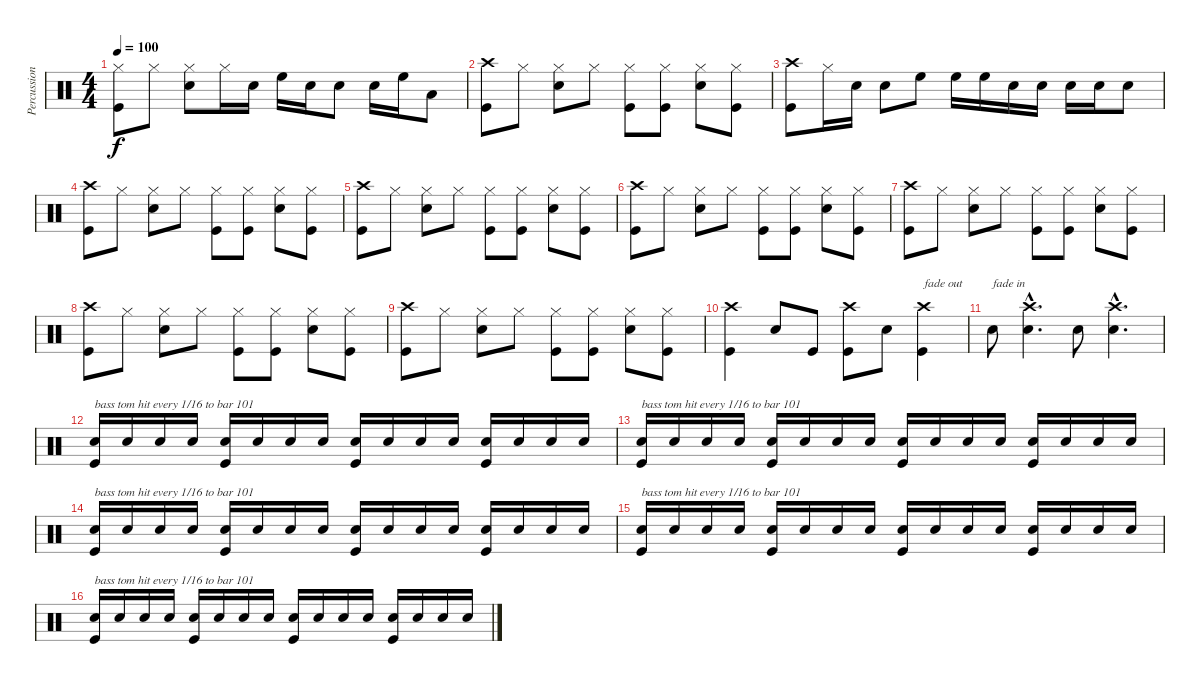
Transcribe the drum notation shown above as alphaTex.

\track ("Percussion" "Percussion") {instrument percussion}
\staff {score}
\articulation defaults
\ts (4 4)
\tempo 100
\clef neutral
\ks c
("Hi-Hat (closed)" "Kick (hit)").8{dy f} "Hi-Hat (closed)".8 ("Hi-Hat (closed)" "Snare (hit) 2").8 "Hi-Hat (closed)".16 "Snare (hit) 2".16 "High Floor Tom (hit)".16 "Snare (hit) 2".16 "Snare (hit) 2".8 "Snare (hit) 2".16 "High Floor Tom (hit)".16 "Low Tom (hit)".8 |
("Crash high (hit)" "Kick (hit)").8 "Hi-Hat (closed)".8 ("Hi-Hat (closed)" "Snare (hit) 2").8 "Hi-Hat (closed)".8 ("Hi-Hat (closed)" "Kick (hit)").8 ("Hi-Hat (closed)" "Kick (hit)").8 ("Hi-Hat (closed)" "Snare (hit) 2").8 ("Hi-Hat (closed)" "Kick (hit)").8 |
("Crash high (hit)" "Kick (hit)").8 "Hi-Hat (closed)".16 "Snare (hit) 2".16 "Snare (hit) 2".8 "High Floor Tom (hit)".8 "High Floor Tom (hit)".16 "High Floor Tom (hit)".16 "Snare (hit) 2".16 "Snare (hit) 2".16 "Snare (hit) 2".16 "Snare (hit) 2".16 "Snare (hit) 2".8 |
("Crash high (hit)" "Kick (hit)").8 "Hi-Hat (closed)".8 ("Hi-Hat (closed)" "Snare (hit) 2").8 "Hi-Hat (closed)".8 ("Hi-Hat (closed)" "Kick (hit)").8 ("Hi-Hat (closed)" "Kick (hit)").8 ("Hi-Hat (closed)" "Snare (hit) 2").8 ("Hi-Hat (closed)" "Kick (hit)").8 |
("Crash high (hit)" "Kick (hit)").8 "Hi-Hat (closed)".8 ("Hi-Hat (closed)" "Snare (hit) 2").8 "Hi-Hat (closed)".8 ("Hi-Hat (closed)" "Kick (hit)").8 ("Hi-Hat (closed)" "Kick (hit)").8 ("Hi-Hat (closed)" "Snare (hit) 2").8 ("Hi-Hat (closed)" "Kick (hit)").8 |
("Crash high (hit)" "Kick (hit)").8 "Hi-Hat (closed)".8 ("Hi-Hat (closed)" "Snare (hit) 2").8 "Hi-Hat (closed)".8 ("Hi-Hat (closed)" "Kick (hit)").8 ("Hi-Hat (closed)" "Kick (hit)").8 ("Hi-Hat (closed)" "Snare (hit) 2").8 ("Hi-Hat (closed)" "Kick (hit)").8 |
("Crash high (hit)" "Kick (hit)").8 "Hi-Hat (closed)".8 ("Hi-Hat (closed)" "Snare (hit) 2").8 "Hi-Hat (closed)".8 ("Hi-Hat (closed)" "Kick (hit)").8 ("Hi-Hat (closed)" "Kick (hit)").8 ("Hi-Hat (closed)" "Snare (hit) 2").8 ("Hi-Hat (closed)" "Kick (hit)").8 |
("Crash high (hit)" "Kick (hit)").8 "Hi-Hat (closed)".8 ("Hi-Hat (closed)" "Snare (hit) 2").8 "Hi-Hat (closed)".8 ("Hi-Hat (closed)" "Kick (hit)").8 ("Hi-Hat (closed)" "Kick (hit)").8 ("Hi-Hat (closed)" "Snare (hit) 2").8 ("Hi-Hat (closed)" "Kick (hit)").8 |
("Crash high (hit)" "Kick (hit)").8 "Hi-Hat (closed)".8 ("Hi-Hat (closed)" "Snare (hit) 2").8 "Hi-Hat (closed)".8 ("Hi-Hat (closed)" "Kick (hit)").8 ("Hi-Hat (closed)" "Kick (hit)").8 ("Hi-Hat (closed)" "Snare (hit) 2").8 ("Hi-Hat (closed)" "Kick (hit)").8 |
("Crash high (hit)" "Kick (hit)").4 "Snare (hit) 2".8 "Kick (hit)".8 ("Crash high (hit)" "Kick (hit)").8 "Snare (hit) 2".8 ("Crash high (hit)" "Kick (hit)").4{txt "fade out"} |
"Snare (hit) 2".8{txt "fade in"} ("Crash high (hit)"{hac} "Snare (hit) 2"{hac}).4{d} "Snare (hit) 2".8 ("Crash high (hit)"{hac} "Snare (hit) 2"{hac}).4{d} |
("Snare (hit) 2" "Kick (hit)").16{txt "bass tom hit every 1/16 to bar 101"} "Snare (hit) 2".16 "Snare (hit) 2".16 "Snare (hit) 2".16 ("Snare (hit) 2" "Kick (hit)").16 "Snare (hit) 2".16 "Snare (hit) 2".16 "Snare (hit) 2".16 ("Snare (hit) 2" "Kick (hit)").16 "Snare (hit) 2".16 "Snare (hit) 2".16 "Snare (hit) 2".16 ("Snare (hit) 2" "Kick (hit)").16 "Snare (hit) 2".16 "Snare (hit) 2".16 "Snare (hit) 2".16 |
("Snare (hit) 2" "Kick (hit)").16{txt "bass tom hit every 1/16 to bar 101"} "Snare (hit) 2".16 "Snare (hit) 2".16 "Snare (hit) 2".16 ("Snare (hit) 2" "Kick (hit)").16 "Snare (hit) 2".16 "Snare (hit) 2".16 "Snare (hit) 2".16 ("Snare (hit) 2" "Kick (hit)").16 "Snare (hit) 2".16 "Snare (hit) 2".16 "Snare (hit) 2".16 ("Snare (hit) 2" "Kick (hit)").16 "Snare (hit) 2".16 "Snare (hit) 2".16 "Snare (hit) 2".16 |
("Snare (hit) 2" "Kick (hit)").16{txt "bass tom hit every 1/16 to bar 101"} "Snare (hit) 2".16 "Snare (hit) 2".16 "Snare (hit) 2".16 ("Snare (hit) 2" "Kick (hit)").16 "Snare (hit) 2".16 "Snare (hit) 2".16 "Snare (hit) 2".16 ("Snare (hit) 2" "Kick (hit)").16 "Snare (hit) 2".16 "Snare (hit) 2".16 "Snare (hit) 2".16 ("Snare (hit) 2" "Kick (hit)").16 "Snare (hit) 2".16 "Snare (hit) 2".16 "Snare (hit) 2".16 |
("Snare (hit) 2" "Kick (hit)").16{txt "bass tom hit every 1/16 to bar 101"} "Snare (hit) 2".16 "Snare (hit) 2".16 "Snare (hit) 2".16 ("Snare (hit) 2" "Kick (hit)").16 "Snare (hit) 2".16 "Snare (hit) 2".16 "Snare (hit) 2".16 ("Snare (hit) 2" "Kick (hit)").16 "Snare (hit) 2".16 "Snare (hit) 2".16 "Snare (hit) 2".16 ("Snare (hit) 2" "Kick (hit)").16 "Snare (hit) 2".16 "Snare (hit) 2".16 "Snare (hit) 2".16 |
("Snare (hit) 2" "Kick (hit)").16{txt "bass tom hit every 1/16 to bar 101"} "Snare (hit) 2".16 "Snare (hit) 2".16 "Snare (hit) 2".16 ("Snare (hit) 2" "Kick (hit)").16 "Snare (hit) 2".16 "Snare (hit) 2".16 "Snare (hit) 2".16 ("Snare (hit) 2" "Kick (hit)").16 "Snare (hit) 2".16 "Snare (hit) 2".16 "Snare (hit) 2".16 ("Snare (hit) 2" "Kick (hit)").16 "Snare (hit) 2".16 "Snare (hit) 2".16 "Snare (hit) 2".16
